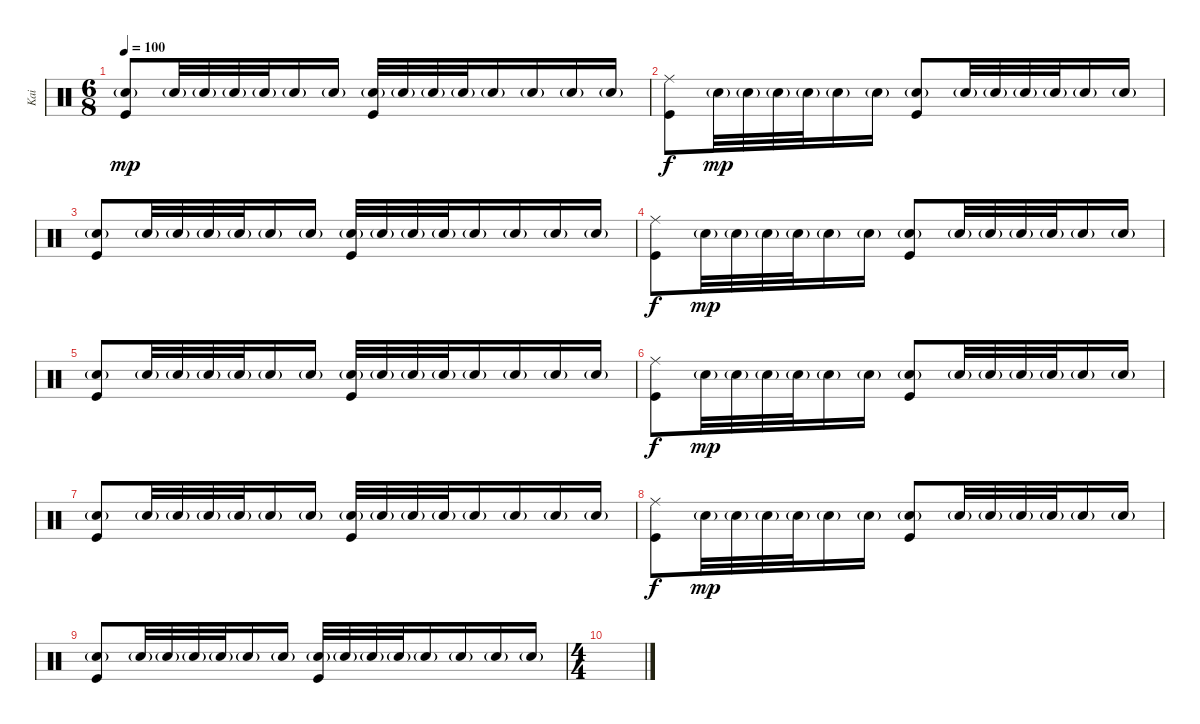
\track ("Kai" "Kai") {instrument percussion}
\staff {score}
\articulation defaults
\ts (6 8)
\tempo 100
\clef neutral
\ks c
("Snare (hit) 2"{g} "Kick (hit)").8{dy mp} "Snare (hit) 2"{g}.32 "Snare (hit) 2"{g}.32 "Snare (hit) 2"{g}.32 "Snare (hit) 2"{g}.32 "Snare (hit) 2"{g}.16 "Snare (hit) 2"{g}.16 ("Snare (hit) 2"{g} "Kick (hit)").32 "Snare (hit) 2"{g}.32 "Snare (hit) 2"{g}.32 "Snare (hit) 2"{g}.32 "Snare (hit) 2"{g}.16 "Snare (hit) 2"{g}.16 "Snare (hit) 2"{g}.16 "Snare (hit) 2"{g}.16 |
("Ride (middle)" "Kick (hit)").8{dy f} "Snare (hit) 2"{g}.32{dy mp} "Snare (hit) 2"{g}.32 "Snare (hit) 2"{g}.32 "Snare (hit) 2"{g}.32 "Snare (hit) 2"{g}.16 "Snare (hit) 2"{g}.16 ("Snare (hit) 2"{g} "Kick (hit)").8 "Snare (hit) 2"{g}.32 "Snare (hit) 2"{g}.32 "Snare (hit) 2"{g}.32 "Snare (hit) 2"{g}.32 "Snare (hit) 2"{g}.16 "Snare (hit) 2"{g}.16 |
("Snare (hit) 2"{g} "Kick (hit)").8 "Snare (hit) 2"{g}.32 "Snare (hit) 2"{g}.32 "Snare (hit) 2"{g}.32 "Snare (hit) 2"{g}.32 "Snare (hit) 2"{g}.16 "Snare (hit) 2"{g}.16 ("Snare (hit) 2"{g} "Kick (hit)").32 "Snare (hit) 2"{g}.32 "Snare (hit) 2"{g}.32 "Snare (hit) 2"{g}.32 "Snare (hit) 2"{g}.16 "Snare (hit) 2"{g}.16 "Snare (hit) 2"{g}.16 "Snare (hit) 2"{g}.16 |
("Ride (middle)" "Kick (hit)").8{dy f} "Snare (hit) 2"{g}.32{dy mp} "Snare (hit) 2"{g}.32 "Snare (hit) 2"{g}.32 "Snare (hit) 2"{g}.32 "Snare (hit) 2"{g}.16 "Snare (hit) 2"{g}.16 ("Snare (hit) 2"{g} "Kick (hit)").8 "Snare (hit) 2"{g}.32 "Snare (hit) 2"{g}.32 "Snare (hit) 2"{g}.32 "Snare (hit) 2"{g}.32 "Snare (hit) 2"{g}.16 "Snare (hit) 2"{g}.16 |
("Snare (hit) 2"{g} "Kick (hit)").8 "Snare (hit) 2"{g}.32 "Snare (hit) 2"{g}.32 "Snare (hit) 2"{g}.32 "Snare (hit) 2"{g}.32 "Snare (hit) 2"{g}.16 "Snare (hit) 2"{g}.16 ("Snare (hit) 2"{g} "Kick (hit)").32 "Snare (hit) 2"{g}.32 "Snare (hit) 2"{g}.32 "Snare (hit) 2"{g}.32 "Snare (hit) 2"{g}.16 "Snare (hit) 2"{g}.16 "Snare (hit) 2"{g}.16 "Snare (hit) 2"{g}.16 |
("Ride (middle)" "Kick (hit)").8{dy f} "Snare (hit) 2"{g}.32{dy mp} "Snare (hit) 2"{g}.32 "Snare (hit) 2"{g}.32 "Snare (hit) 2"{g}.32 "Snare (hit) 2"{g}.16 "Snare (hit) 2"{g}.16 ("Snare (hit) 2"{g} "Kick (hit)").8 "Snare (hit) 2"{g}.32 "Snare (hit) 2"{g}.32 "Snare (hit) 2"{g}.32 "Snare (hit) 2"{g}.32 "Snare (hit) 2"{g}.16 "Snare (hit) 2"{g}.16 |
("Snare (hit) 2"{g} "Kick (hit)").8 "Snare (hit) 2"{g}.32 "Snare (hit) 2"{g}.32 "Snare (hit) 2"{g}.32 "Snare (hit) 2"{g}.32 "Snare (hit) 2"{g}.16 "Snare (hit) 2"{g}.16 ("Snare (hit) 2"{g} "Kick (hit)").32 "Snare (hit) 2"{g}.32 "Snare (hit) 2"{g}.32 "Snare (hit) 2"{g}.32 "Snare (hit) 2"{g}.16 "Snare (hit) 2"{g}.16 "Snare (hit) 2"{g}.16 "Snare (hit) 2"{g}.16 |
("Ride (middle)" "Kick (hit)").8{dy f} "Snare (hit) 2"{g}.32{dy mp} "Snare (hit) 2"{g}.32 "Snare (hit) 2"{g}.32 "Snare (hit) 2"{g}.32 "Snare (hit) 2"{g}.16 "Snare (hit) 2"{g}.16 ("Snare (hit) 2"{g} "Kick (hit)").8 "Snare (hit) 2"{g}.32 "Snare (hit) 2"{g}.32 "Snare (hit) 2"{g}.32 "Snare (hit) 2"{g}.32 "Snare (hit) 2"{g}.16 "Snare (hit) 2"{g}.16 |
("Snare (hit) 2"{g} "Kick (hit)").8 "Snare (hit) 2"{g}.32 "Snare (hit) 2"{g}.32 "Snare (hit) 2"{g}.32 "Snare (hit) 2"{g}.32 "Snare (hit) 2"{g}.16 "Snare (hit) 2"{g}.16 ("Snare (hit) 2"{g} "Kick (hit)").32 "Snare (hit) 2"{g}.32 "Snare (hit) 2"{g}.32 "Snare (hit) 2"{g}.32 "Snare (hit) 2"{g}.16 "Snare (hit) 2"{g}.16 "Snare (hit) 2"{g}.16 "Snare (hit) 2"{g}.16 |
\ts (4 4)
